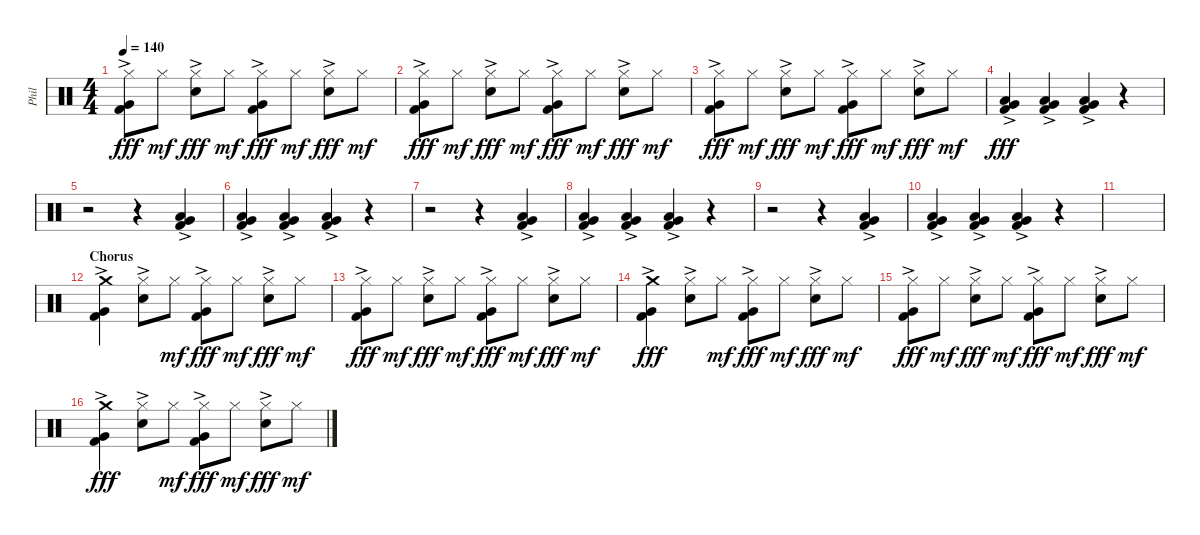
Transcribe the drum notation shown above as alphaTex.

\track ("Phil" "Phil") {instrument percussion}
\staff {score}
\articulation defaults
\ts (4 4)
\tempo 140
\clef neutral
\ks c
("Hi-Hat (closed)"{ac} "Very Low Tom (hit)"{ac} "Kick (hit) 2"{ac}).8{dy fff} "Hi-Hat (closed)".8{dy mf} ("Hi-Hat (closed)"{ac} "Snare (hit) 2").8{dy fff} "Hi-Hat (closed)".8{dy mf} ("Hi-Hat (closed)"{ac} "Very Low Tom (hit)"{ac} "Kick (hit) 2"{ac}).8{dy fff} "Hi-Hat (closed)".8{dy mf} ("Hi-Hat (closed)"{ac} "Snare (hit) 2").8{dy fff} "Hi-Hat (closed)".8{dy mf} |
("Hi-Hat (closed)"{ac} "Very Low Tom (hit)"{ac} "Kick (hit) 2"{ac}).8{dy fff} "Hi-Hat (closed)".8{dy mf} ("Hi-Hat (closed)"{ac} "Snare (hit) 2").8{dy fff} "Hi-Hat (closed)".8{dy mf} ("Hi-Hat (closed)"{ac} "Very Low Tom (hit)"{ac} "Kick (hit) 2"{ac}).8{dy fff} "Hi-Hat (closed)".8{dy mf} ("Hi-Hat (closed)"{ac} "Snare (hit) 2").8{dy fff} "Hi-Hat (closed)".8{dy mf} |
("Hi-Hat (closed)"{ac} "Very Low Tom (hit)"{ac} "Kick (hit) 2"{ac}).8{dy fff} "Hi-Hat (closed)".8{dy mf} ("Hi-Hat (closed)"{ac} "Snare (hit) 2").8{dy fff} "Hi-Hat (closed)".8{dy mf} ("Hi-Hat (closed)"{ac} "Very Low Tom (hit)"{ac} "Kick (hit) 2"{ac}).8{dy fff} "Hi-Hat (closed)".8{dy mf} ("Hi-Hat (closed)"{ac} "Snare (hit) 2").8{dy fff} "Hi-Hat (closed)".8{dy mf} |
("Low Floor Tom (hit)"{ac} "Very Low Tom (hit)"{ac} "Kick (hit) 2"{ac}).4{dy fff} ("Low Floor Tom (hit)"{ac} "Very Low Tom (hit)"{ac} "Kick (hit) 2"{ac}).4 ("Low Floor Tom (hit)"{ac} "Very Low Tom (hit)"{ac} "Kick (hit) 2"{ac}).4 r.4 |
r.2 r.4 ("Low Floor Tom (hit)"{ac} "Very Low Tom (hit)"{ac} "Kick (hit) 2"{ac}).4 |
("Low Floor Tom (hit)"{ac} "Very Low Tom (hit)"{ac} "Kick (hit) 2"{ac}).4 ("Low Floor Tom (hit)"{ac} "Very Low Tom (hit)"{ac} "Kick (hit) 2"{ac}).4 ("Low Floor Tom (hit)"{ac} "Very Low Tom (hit)"{ac} "Kick (hit) 2"{ac}).4 r.4 |
r.2 r.4 ("Low Floor Tom (hit)"{ac} "Very Low Tom (hit)"{ac} "Kick (hit) 2"{ac}).4 |
("Low Floor Tom (hit)"{ac} "Very Low Tom (hit)"{ac} "Kick (hit) 2"{ac}).4 ("Low Floor Tom (hit)"{ac} "Very Low Tom (hit)"{ac} "Kick (hit) 2"{ac}).4 ("Low Floor Tom (hit)"{ac} "Very Low Tom (hit)"{ac} "Kick (hit) 2"{ac}).4 r.4 |
r.2 r.4 ("Low Floor Tom (hit)"{ac} "Very Low Tom (hit)"{ac} "Kick (hit) 2"{ac}).4 |
("Low Floor Tom (hit)"{ac} "Very Low Tom (hit)"{ac} "Kick (hit) 2"{ac}).4 ("Low Floor Tom (hit)"{ac} "Very Low Tom (hit)"{ac} "Kick (hit) 2"{ac}).4 ("Low Floor Tom (hit)"{ac} "Very Low Tom (hit)"{ac} "Kick (hit) 2"{ac}).4 r.4 |
|
\section ("" "Chorus")
("Crash medium (hit)"{ac} "Very Low Tom (hit)"{ac} "Kick (hit) 2"{ac}).4 ("Hi-Hat (closed)"{ac} "Snare (hit) 2").8 "Hi-Hat (closed)".8{dy mf} ("Hi-Hat (closed)"{ac} "Very Low Tom (hit)"{ac} "Kick (hit) 2"{ac}).8{dy fff} "Hi-Hat (closed)".8{dy mf} ("Hi-Hat (closed)"{ac} "Snare (hit) 2").8{dy fff} "Hi-Hat (closed)".8{dy mf} |
("Hi-Hat (closed)"{ac} "Very Low Tom (hit)"{ac} "Kick (hit) 2"{ac}).8{dy fff} "Hi-Hat (closed)".8{dy mf} ("Hi-Hat (closed)"{ac} "Snare (hit) 2").8{dy fff} "Hi-Hat (closed)".8{dy mf} ("Hi-Hat (closed)"{ac} "Very Low Tom (hit)"{ac} "Kick (hit) 2"{ac}).8{dy fff} "Hi-Hat (closed)".8{dy mf} ("Hi-Hat (closed)"{ac} "Snare (hit) 2").8{dy fff} "Hi-Hat (closed)".8{dy mf} |
("Crash medium (hit)"{ac} "Very Low Tom (hit)"{ac} "Kick (hit) 2"{ac}).4{dy fff} ("Hi-Hat (closed)"{ac} "Snare (hit) 2").8 "Hi-Hat (closed)".8{dy mf} ("Hi-Hat (closed)"{ac} "Very Low Tom (hit)"{ac} "Kick (hit) 2"{ac}).8{dy fff} "Hi-Hat (closed)".8{dy mf} ("Hi-Hat (closed)"{ac} "Snare (hit) 2").8{dy fff} "Hi-Hat (closed)".8{dy mf} |
("Hi-Hat (closed)"{ac} "Very Low Tom (hit)"{ac} "Kick (hit) 2"{ac}).8{dy fff} "Hi-Hat (closed)".8{dy mf} ("Hi-Hat (closed)"{ac} "Snare (hit) 2").8{dy fff} "Hi-Hat (closed)".8{dy mf} ("Hi-Hat (closed)"{ac} "Very Low Tom (hit)"{ac} "Kick (hit) 2"{ac}).8{dy fff} "Hi-Hat (closed)".8{dy mf} ("Hi-Hat (closed)"{ac} "Snare (hit) 2").8{dy fff} "Hi-Hat (closed)".8{dy mf} |
("Crash medium (hit)"{ac} "Very Low Tom (hit)"{ac} "Kick (hit) 2"{ac}).4{dy fff} ("Hi-Hat (closed)"{ac} "Snare (hit) 2").8 "Hi-Hat (closed)".8{dy mf} ("Hi-Hat (closed)"{ac} "Very Low Tom (hit)"{ac} "Kick (hit) 2"{ac}).8{dy fff} "Hi-Hat (closed)".8{dy mf} ("Hi-Hat (closed)"{ac} "Snare (hit) 2").8{dy fff} "Hi-Hat (closed)".8{dy mf}
